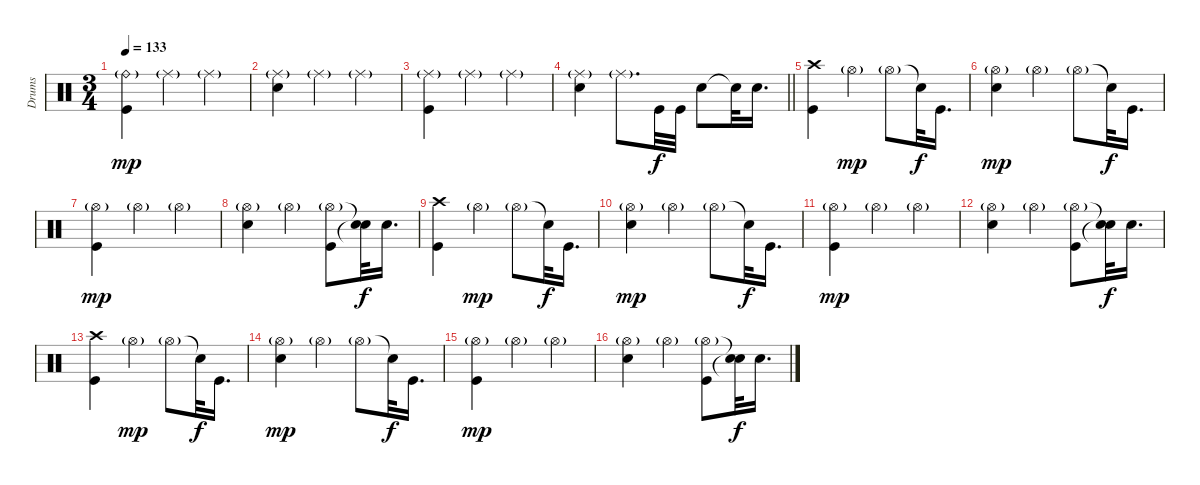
\track ("Drums" "Drums") {instrument percussion}
\staff
\articulation defaults
\ts (3 4)
\tempo 133
\clef neutral
\ks c
("Ride (bell)"{g} "Kick (hit)").4{dy mp} "Ride (middle)"{g}.4 "Ride (middle)"{g}.4 |
("Ride (middle)"{g} "Electric Snare (hit)").4 "Ride (middle)"{g}.4 "Ride (middle)"{g}.4 |
("Ride (middle)"{g} "Kick (hit)").4 "Ride (middle)"{g}.4 "Ride (middle)"{g}.4 |
\barLineRight lightlight
("Ride (middle)"{g} "Electric Snare (hit)").4 "Ride (middle)"{g}.8{d} "Kick (hit)".32{dy f} "Kick (hit)".32 "Electric Snare (hit)".8 "Snare (hit)"{t}.32 "Electric Snare (hit)".16{d} |
\section ("" "")
("Crash high (hit)" "Kick (hit)").4 "Hi-Hat (open)"{g}.4{dy mp} "Hi-Hat (open)"{g}.8 "Snare (hit)"{t}.32{dy f} "Kick (hit)".16{d} |
("Hi-Hat (open)"{g} "Electric Snare (hit)").4{dy mp} "Hi-Hat (open)"{g}.4 "Hi-Hat (open)"{g}.8 "Snare (hit)"{t}.32{dy f} "Kick (hit)".16{d} |
("Hi-Hat (open)"{g} "Kick (hit)").4{dy mp} "Hi-Hat (open)"{g}.4 "Hi-Hat (open)"{g}.4 |
("Hi-Hat (open)"{g} "Electric Snare (hit)").4 "Hi-Hat (open)"{g}.4 ("Hi-Hat (open)"{g} "Kick (hit)").8 ("Snare (hit)"{t} "Snare (hit)"{t}).32{dy f} "Electric Snare (hit)".16{d} |
("Crash high (hit)" "Kick (hit)").4 "Hi-Hat (open)"{g}.4{dy mp} "Hi-Hat (open)"{g}.8 "Snare (hit)"{t}.32{dy f} "Kick (hit)".16{d} |
("Hi-Hat (open)"{g} "Electric Snare (hit)").4{dy mp} "Hi-Hat (open)"{g}.4 "Hi-Hat (open)"{g}.8 "Snare (hit)"{t}.32{dy f} "Kick (hit)".16{d} |
("Hi-Hat (open)"{g} "Kick (hit)").4{dy mp} "Hi-Hat (open)"{g}.4 "Hi-Hat (open)"{g}.4 |
("Hi-Hat (open)"{g} "Electric Snare (hit)").4 "Hi-Hat (open)"{g}.4 ("Hi-Hat (open)"{g} "Kick (hit)").8 ("Snare (hit)"{t} "Snare (hit)"{t}).32{dy f} "Electric Snare (hit)".16{d} |
("Crash high (hit)" "Kick (hit)").4 "Hi-Hat (open)"{g}.4{dy mp} "Hi-Hat (open)"{g}.8 "Snare (hit)"{t}.32{dy f} "Kick (hit)".16{d} |
("Hi-Hat (open)"{g} "Electric Snare (hit)").4{dy mp} "Hi-Hat (open)"{g}.4 "Hi-Hat (open)"{g}.8 "Snare (hit)"{t}.32{dy f} "Kick (hit)".16{d} |
("Hi-Hat (open)"{g} "Kick (hit)").4{dy mp} "Hi-Hat (open)"{g}.4 "Hi-Hat (open)"{g}.4 |
("Hi-Hat (open)"{g} "Electric Snare (hit)").4 "Hi-Hat (open)"{g}.4 ("Hi-Hat (open)"{g} "Kick (hit)").8 ("Snare (hit)"{t} "Snare (hit)"{t}).32{dy f} "Electric Snare (hit)".16{d}
